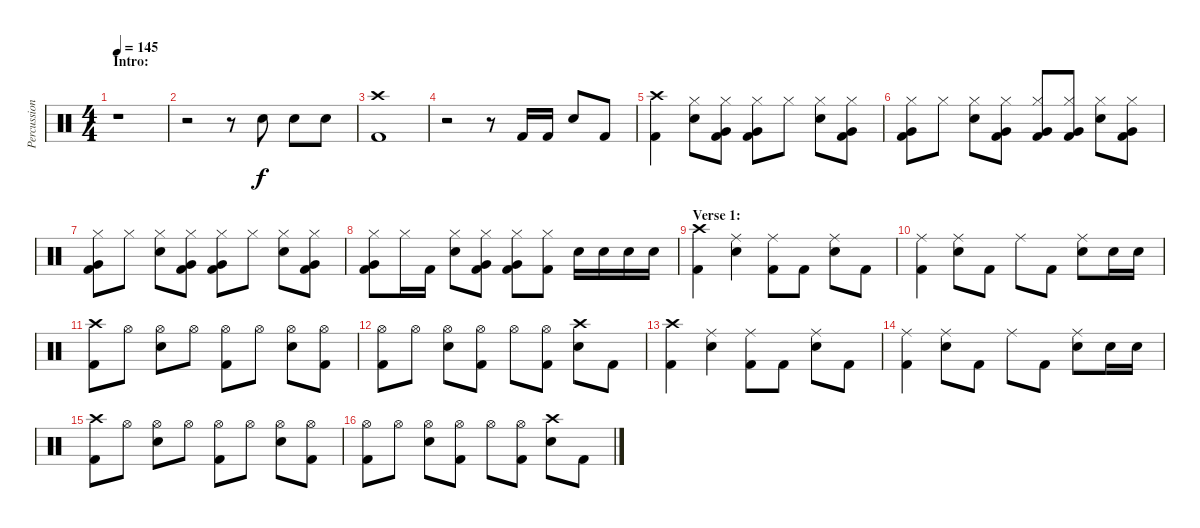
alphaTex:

\track ("Percussion" "Percussion") {instrument percussion}
\staff {score}
\articulation defaults
\ts (4 4)
\section ("" "Intro:")
\tempo 145
\clef neutral
\ks c
r.1{dy f} |
r.2 r.8 "Electric Snare (hit)".8 "Electric Snare (hit)".8 "Electric Snare (hit)".8 |
("Crash high (hit)" "Kick (hit) 2").1 |
r.2 r.8 "Kick (hit) 2".16 "Kick (hit) 2".16 "Electric Snare (hit)".8 "Kick (hit) 2".8 |
("Crash high (hit)" "Kick (hit) 2").4 ("Hi-Hat (closed)" "Electric Snare (hit)").8 ("Hi-Hat (closed)" "Very Low Tom (hit)" "Kick (hit) 2").8 ("Hi-Hat (closed)" "Very Low Tom (hit)" "Kick (hit) 2").8 "Hi-Hat (closed)".8 ("Hi-Hat (closed)" "Electric Snare (hit)").8 ("Hi-Hat (closed)" "Very Low Tom (hit)" "Kick (hit) 2").8 |
("Hi-Hat (closed)" "Very Low Tom (hit)" "Kick (hit) 2").8 "Hi-Hat (closed)".8 ("Hi-Hat (closed)" "Electric Snare (hit)").8 ("Hi-Hat (closed)" "Very Low Tom (hit)" "Kick (hit) 2").8 ("Hi-Hat (closed)" "Very Low Tom (hit)" "Kick (hit) 2").8 ("Hi-Hat (closed)" "Very Low Tom (hit)" "Kick (hit) 2").8 ("Hi-Hat (closed)" "Electric Snare (hit)").8 ("Hi-Hat (closed)" "Very Low Tom (hit)" "Kick (hit) 2").8 |
("Hi-Hat (closed)" "Very Low Tom (hit)" "Kick (hit) 2").8 "Hi-Hat (closed)".8 ("Hi-Hat (closed)" "Electric Snare (hit)").8 ("Hi-Hat (closed)" "Very Low Tom (hit)" "Kick (hit) 2").8 ("Hi-Hat (closed)" "Very Low Tom (hit)" "Kick (hit) 2").8 "Hi-Hat (closed)".8 ("Hi-Hat (closed)" "Electric Snare (hit)").8 ("Hi-Hat (closed)" "Very Low Tom (hit)" "Kick (hit) 2").8 |
("Hi-Hat (closed)" "Very Low Tom (hit)" "Kick (hit) 2").8 "Hi-Hat (closed)".16 "Kick (hit) 2".16 ("Hi-Hat (closed)" "Electric Snare (hit)").8 ("Hi-Hat (closed)" "Very Low Tom (hit)" "Kick (hit) 2").8 ("Hi-Hat (closed)" "Very Low Tom (hit)" "Kick (hit) 2").8 ("Hi-Hat (closed)" "Kick (hit) 2").8 "Electric Snare (hit)".16 "Electric Snare (hit)".16 "Electric Snare (hit)".16 "Electric Snare (hit)".16 |
\section ("" "Verse 1:")
("Crash high (hit)" "Kick (hit) 2").4 ("Ride (middle)" "Electric Snare (hit)").4 ("Ride (middle)" "Kick (hit) 2").8 "Kick (hit) 2".8 ("Ride (middle)" "Electric Snare (hit)").8 "Kick (hit) 2".8 |
("Ride (middle)" "Kick (hit) 2").4 ("Ride (middle)" "Electric Snare (hit)").8 "Kick (hit) 2".8 "Ride (middle)".8 "Kick (hit) 2".8 ("Ride (middle)" "Electric Snare (hit)").8 "Electric Snare (hit)".16 "Electric Snare (hit)".16 |
("Crash high (hit)" "Kick (hit) 2").8 "Hi-Hat (open)".8 ("Hi-Hat (open)" "Electric Snare (hit)").8 "Hi-Hat (open)".8 ("Hi-Hat (open)" "Kick (hit) 2").8 "Hi-Hat (open)".8 ("Hi-Hat (open)" "Electric Snare (hit)").8 ("Hi-Hat (open)" "Kick (hit) 2").8 |
("Hi-Hat (open)" "Kick (hit) 2").8 "Hi-Hat (open)".8 ("Hi-Hat (open)" "Electric Snare (hit)").8 ("Hi-Hat (open)" "Kick (hit) 2").8 "Hi-Hat (open)".8 ("Hi-Hat (open)" "Kick (hit) 2").8 ("Crash high (hit)" "Electric Snare (hit)").8 "Kick (hit) 2".8 |
("Crash high (hit)" "Kick (hit) 2").4 ("Ride (middle)" "Electric Snare (hit)").4 ("Ride (middle)" "Kick (hit) 2").8 "Kick (hit) 2".8 ("Ride (middle)" "Electric Snare (hit)").8 "Kick (hit) 2".8 |
("Ride (middle)" "Kick (hit) 2").4 ("Ride (middle)" "Electric Snare (hit)").8 "Kick (hit) 2".8 "Ride (middle)".8 "Kick (hit) 2".8 ("Ride (middle)" "Electric Snare (hit)").8 "Electric Snare (hit)".16 "Electric Snare (hit)".16 |
("Crash high (hit)" "Kick (hit) 2").8 "Hi-Hat (open)".8 ("Hi-Hat (open)" "Electric Snare (hit)").8 "Hi-Hat (open)".8 ("Hi-Hat (open)" "Kick (hit) 2").8 "Hi-Hat (open)".8 ("Hi-Hat (open)" "Electric Snare (hit)").8 ("Hi-Hat (open)" "Kick (hit) 2").8 |
("Hi-Hat (open)" "Kick (hit) 2").8 "Hi-Hat (open)".8 ("Hi-Hat (open)" "Electric Snare (hit)").8 ("Hi-Hat (open)" "Kick (hit) 2").8 "Hi-Hat (open)".8 ("Hi-Hat (open)" "Kick (hit) 2").8 ("Crash high (hit)" "Electric Snare (hit)").8 "Kick (hit) 2".8
